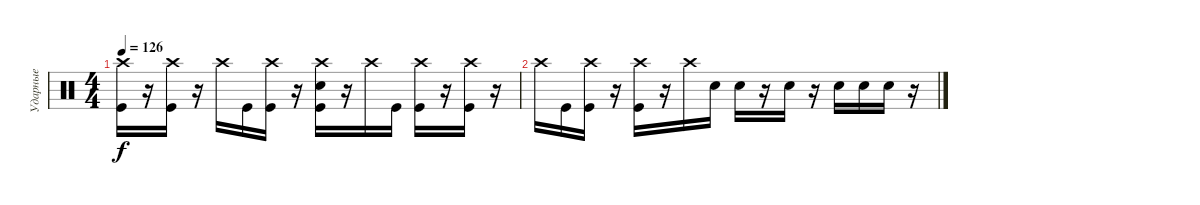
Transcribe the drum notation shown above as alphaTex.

\track ("Ударные" "Ударные") {instrument percussion}
\staff {score}
\articulation defaults
\ts (4 4)
\tempo 126
\clef neutral
\ks c
("Crash high (hit)" "Kick (hit)").16{dy f} r.16 ("Crash high (hit)" "Kick (hit)").16 r.16 "Crash high (hit)".16 "Kick (hit)".16 ("Crash high (hit)" "Kick (hit)").16 r.16 ("Crash high (hit)" "Kick (hit)" "Electric Snare (hit)").16 r.16 "Crash high (hit)".16 "Kick (hit)".16 ("Crash high (hit)" "Kick (hit)").16 r.16 ("Crash high (hit)" "Kick (hit)").16 r.16 |
"Crash high (hit)".16 "Kick (hit)".16 ("Crash high (hit)" "Kick (hit)").16 r.16 ("Crash high (hit)" "Kick (hit)").16 r.16 "Crash high (hit)".16 "Electric Snare (hit)".16 "Electric Snare (hit)".16 r.16 "Electric Snare (hit)".16 r.16 "Electric Snare (hit)".16 "Electric Snare (hit)".16 "Electric Snare (hit)".16 r.16
